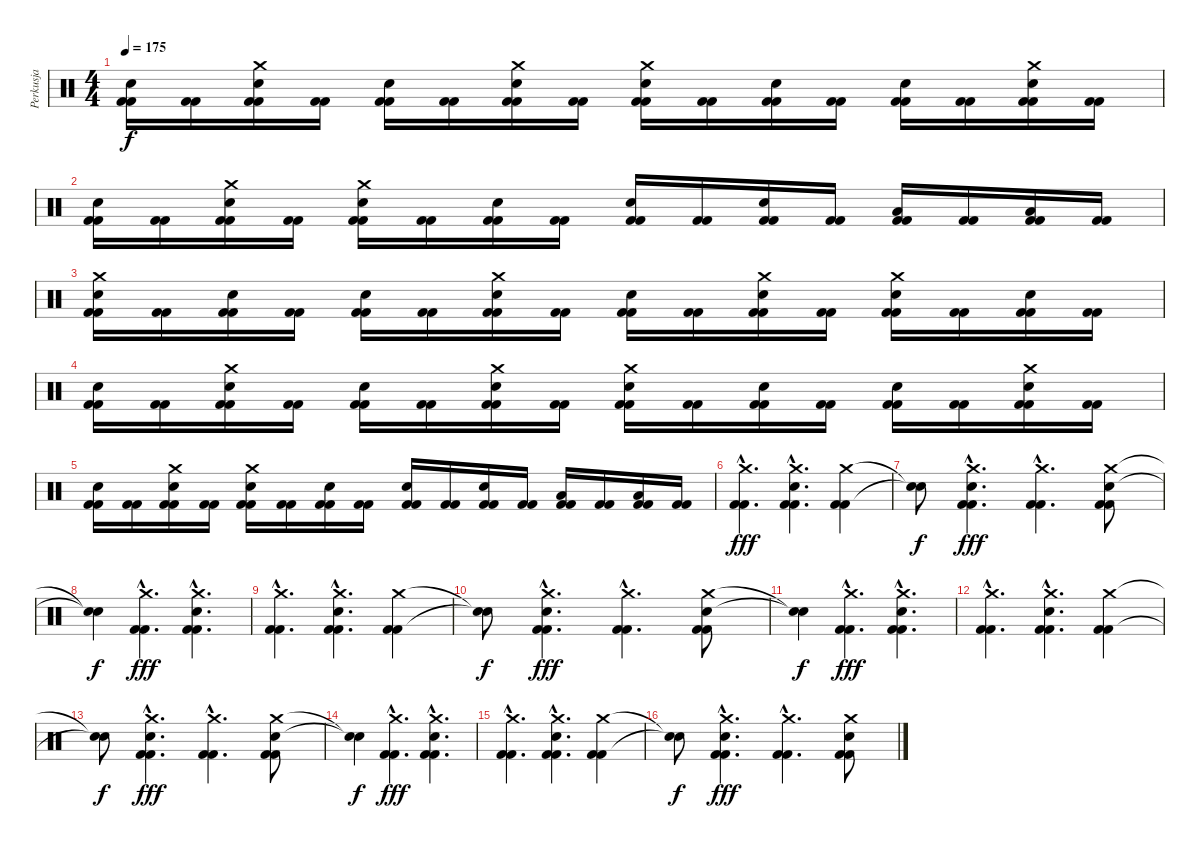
\track ("Perkusja" "Perkusja") {instrument percussion}
\staff {score}
\articulation defaults
\ts (4 4)
\tempo 175
\clef neutral
\ks c
("Snare (hit) 2" "Kick (hit) 2" "Kick (hit) 2").16{dy f} ("Kick (hit) 2" "Kick (hit) 2").16 ("Crash medium (hit)" "Snare (hit) 2" "Kick (hit) 2" "Kick (hit) 2").16 ("Kick (hit) 2" "Kick (hit) 2").16 ("Snare (hit) 2" "Kick (hit) 2" "Kick (hit) 2").16 ("Kick (hit) 2" "Kick (hit) 2").16 ("Crash medium (hit)" "Snare (hit) 2" "Kick (hit) 2" "Kick (hit) 2").16 ("Kick (hit) 2" "Kick (hit) 2").16 ("Crash medium (hit)" "Snare (hit) 2" "Kick (hit) 2" "Kick (hit) 2").16 ("Kick (hit) 2" "Kick (hit) 2").16 ("Snare (hit) 2" "Kick (hit) 2" "Kick (hit) 2").16 ("Kick (hit) 2" "Kick (hit) 2").16 ("Snare (hit) 2" "Kick (hit) 2" "Kick (hit) 2").16 ("Kick (hit) 2" "Kick (hit) 2").16 ("Crash medium (hit)" "Snare (hit) 2" "Kick (hit) 2" "Kick (hit) 2").16 ("Kick (hit) 2" "Kick (hit) 2").16 |
("Snare (hit) 2" "Kick (hit) 2" "Kick (hit) 2").16 ("Kick (hit) 2" "Kick (hit) 2").16 ("Crash medium (hit)" "Snare (hit) 2" "Kick (hit) 2" "Kick (hit) 2").16 ("Kick (hit) 2" "Kick (hit) 2").16 ("Crash medium (hit)" "Snare (hit) 2" "Kick (hit) 2" "Kick (hit) 2").16 ("Kick (hit) 2" "Kick (hit) 2").16 ("Snare (hit) 2" "Kick (hit) 2" "Kick (hit) 2").16 ("Kick (hit) 2" "Kick (hit) 2").16 ("Electric Snare (hit)" "Kick (hit) 2" "Kick (hit) 2").16 ("Kick (hit) 2" "Kick (hit) 2").16 ("Electric Snare (hit)" "Kick (hit) 2" "Kick (hit) 2").16 ("Kick (hit) 2" "Kick (hit) 2").16 ("Low Tom (hit)" "Kick (hit) 2" "Kick (hit) 2").16 ("Kick (hit) 2" "Kick (hit) 2").16 ("Low Tom (hit)" "Kick (hit) 2" "Kick (hit) 2").16 ("Kick (hit) 2" "Kick (hit) 2").16 |
("Crash medium (hit)" "Snare (hit) 2" "Kick (hit) 2" "Kick (hit) 2").16 ("Kick (hit) 2" "Kick (hit) 2").16 ("Snare (hit) 2" "Kick (hit) 2" "Kick (hit) 2").16 ("Kick (hit) 2" "Kick (hit) 2").16 ("Snare (hit) 2" "Kick (hit) 2" "Kick (hit) 2").16 ("Kick (hit) 2" "Kick (hit) 2").16 ("Crash medium (hit)" "Snare (hit) 2" "Kick (hit) 2" "Kick (hit) 2").16 ("Kick (hit) 2" "Kick (hit) 2").16 ("Snare (hit) 2" "Kick (hit) 2" "Kick (hit) 2").16 ("Kick (hit) 2" "Kick (hit) 2").16 ("Crash medium (hit)" "Snare (hit) 2" "Kick (hit) 2" "Kick (hit) 2").16 ("Kick (hit) 2" "Kick (hit) 2").16 ("Crash medium (hit)" "Snare (hit) 2" "Kick (hit) 2" "Kick (hit) 2").16 ("Kick (hit) 2" "Kick (hit) 2").16 ("Snare (hit) 2" "Kick (hit) 2" "Kick (hit) 2").16 ("Kick (hit) 2" "Kick (hit) 2").16 |
("Snare (hit) 2" "Kick (hit) 2" "Kick (hit) 2").16 ("Kick (hit) 2" "Kick (hit) 2").16 ("Crash medium (hit)" "Snare (hit) 2" "Kick (hit) 2" "Kick (hit) 2").16 ("Kick (hit) 2" "Kick (hit) 2").16 ("Snare (hit) 2" "Kick (hit) 2" "Kick (hit) 2").16 ("Kick (hit) 2" "Kick (hit) 2").16 ("Crash medium (hit)" "Snare (hit) 2" "Kick (hit) 2" "Kick (hit) 2").16 ("Kick (hit) 2" "Kick (hit) 2").16 ("Crash medium (hit)" "Snare (hit) 2" "Kick (hit) 2" "Kick (hit) 2").16 ("Kick (hit) 2" "Kick (hit) 2").16 ("Snare (hit) 2" "Kick (hit) 2" "Kick (hit) 2").16 ("Kick (hit) 2" "Kick (hit) 2").16 ("Snare (hit) 2" "Kick (hit) 2" "Kick (hit) 2").16 ("Kick (hit) 2" "Kick (hit) 2").16 ("Crash medium (hit)" "Snare (hit) 2" "Kick (hit) 2" "Kick (hit) 2").16 ("Kick (hit) 2" "Kick (hit) 2").16 |
("Snare (hit) 2" "Kick (hit) 2" "Kick (hit) 2").16 ("Kick (hit) 2" "Kick (hit) 2").16 ("Crash medium (hit)" "Snare (hit) 2" "Kick (hit) 2" "Kick (hit) 2").16 ("Kick (hit) 2" "Kick (hit) 2").16 ("Crash medium (hit)" "Snare (hit) 2" "Kick (hit) 2" "Kick (hit) 2").16 ("Kick (hit) 2" "Kick (hit) 2").16 ("Snare (hit) 2" "Kick (hit) 2" "Kick (hit) 2").16 ("Kick (hit) 2" "Kick (hit) 2").16 ("Electric Snare (hit)" "Kick (hit) 2" "Kick (hit) 2").16 ("Kick (hit) 2" "Kick (hit) 2").16 ("Electric Snare (hit)" "Kick (hit) 2" "Kick (hit) 2").16 ("Kick (hit) 2" "Kick (hit) 2").16 ("Low Tom (hit)" "Kick (hit) 2" "Kick (hit) 2").16 ("Kick (hit) 2" "Kick (hit) 2").16 ("Low Tom (hit)" "Kick (hit) 2" "Kick (hit) 2").16 ("Kick (hit) 2" "Kick (hit) 2").16 |
("Crash medium (hit)"{hac} "Kick (hit) 2"{tr (36 16) hac} "Kick (hit) 2"{hac}).4{d dy fff} ("Crash medium (hit)"{hac} "Snare (hit) 2"{hac} "Kick (hit) 2"{tr (36 16) hac} "Kick (hit) 2"{hac}).4{d} ("Crash medium (hit)" "Kick (hit) 2"{tr (36 16)} "Kick (hit) 2").4 |
("Snare (hit)"{t} "Snare (hit)"{t}).8{dy f} ("Crash medium (hit)"{hac} "Snare (hit) 2"{hac} "Kick (hit) 2"{tr (36 16) hac} "Kick (hit) 2"{hac}).4{d dy fff} ("Crash medium (hit)"{hac} "Kick (hit) 2"{tr (36 16) hac} "Kick (hit) 2"{hac}).4{d} ("Crash medium (hit)" "Snare (hit) 2" "Kick (hit) 2"{tr (36 16)} "Kick (hit) 2").8 |
("Snare (hit)"{t} "Snare (hit)"{t}).4{dy f} ("Crash medium (hit)"{hac} "Kick (hit) 2"{tr (36 16) hac} "Kick (hit) 2"{hac}).4{d dy fff} ("Crash medium (hit)"{hac} "Snare (hit) 2"{hac} "Kick (hit) 2"{tr (36 16) hac} "Kick (hit) 2"{hac}).4{d} |
("Crash medium (hit)"{hac} "Kick (hit) 2"{tr (36 16) hac} "Kick (hit) 2"{hac}).4{d} ("Crash medium (hit)"{hac} "Snare (hit) 2"{hac} "Kick (hit) 2"{tr (36 16) hac} "Kick (hit) 2"{hac}).4{d} ("Crash medium (hit)" "Kick (hit) 2"{tr (36 16)} "Kick (hit) 2").4 |
("Snare (hit)"{t} "Snare (hit)"{t}).8{dy f} ("Crash medium (hit)"{hac} "Snare (hit) 2"{hac} "Kick (hit) 2"{tr (36 16) hac} "Kick (hit) 2"{hac}).4{d dy fff} ("Crash medium (hit)"{hac} "Kick (hit) 2"{tr (36 16) hac} "Kick (hit) 2"{hac}).4{d} ("Crash medium (hit)" "Snare (hit) 2" "Kick (hit) 2"{tr (36 16)} "Kick (hit) 2").8 |
("Snare (hit)"{t} "Snare (hit)"{t}).4{dy f} ("Crash medium (hit)"{hac} "Kick (hit) 2"{tr (36 16) hac} "Kick (hit) 2"{hac}).4{d dy fff} ("Crash medium (hit)"{hac} "Snare (hit) 2"{hac} "Kick (hit) 2"{tr (36 16) hac} "Kick (hit) 2"{hac}).4{d} |
("Crash medium (hit)"{hac} "Kick (hit) 2"{tr (36 16) hac} "Kick (hit) 2"{hac}).4{d} ("Crash medium (hit)"{hac} "Snare (hit) 2"{hac} "Kick (hit) 2"{tr (36 16) hac} "Kick (hit) 2"{hac}).4{d} ("Crash medium (hit)" "Kick (hit) 2"{tr (36 16)} "Kick (hit) 2").4 |
("Snare (hit)"{t} "Snare (hit)"{t}).8{dy f} ("Crash medium (hit)"{hac} "Snare (hit) 2"{hac} "Kick (hit) 2"{tr (36 16) hac} "Kick (hit) 2"{hac}).4{d dy fff} ("Crash medium (hit)"{hac} "Kick (hit) 2"{tr (36 16) hac} "Kick (hit) 2"{hac}).4{d} ("Crash medium (hit)" "Snare (hit) 2" "Kick (hit) 2"{tr (36 16)} "Kick (hit) 2").8 |
("Snare (hit)"{t} "Snare (hit)"{t}).4{dy f} ("Crash medium (hit)"{hac} "Kick (hit) 2"{tr (36 16) hac} "Kick (hit) 2"{hac}).4{d dy fff} ("Crash medium (hit)"{hac} "Snare (hit) 2"{hac} "Kick (hit) 2"{tr (36 16) hac} "Kick (hit) 2"{hac}).4{d} |
("Crash medium (hit)"{hac} "Kick (hit) 2"{tr (36 16) hac} "Kick (hit) 2"{hac}).4{d} ("Crash medium (hit)"{hac} "Snare (hit) 2"{hac} "Kick (hit) 2"{tr (36 16) hac} "Kick (hit) 2"{hac}).4{d} ("Crash medium (hit)" "Kick (hit) 2"{tr (36 16)} "Kick (hit) 2").4 |
("Snare (hit)"{t} "Snare (hit)"{t}).8{dy f} ("Crash medium (hit)"{hac} "Snare (hit) 2"{hac} "Kick (hit) 2"{tr (36 16) hac} "Kick (hit) 2"{hac}).4{d dy fff} ("Crash medium (hit)"{hac} "Kick (hit) 2"{tr (36 16) hac} "Kick (hit) 2"{hac}).4{d} ("Crash medium (hit)" "Snare (hit) 2" "Kick (hit) 2"{tr (36 16)} "Kick (hit) 2").8
